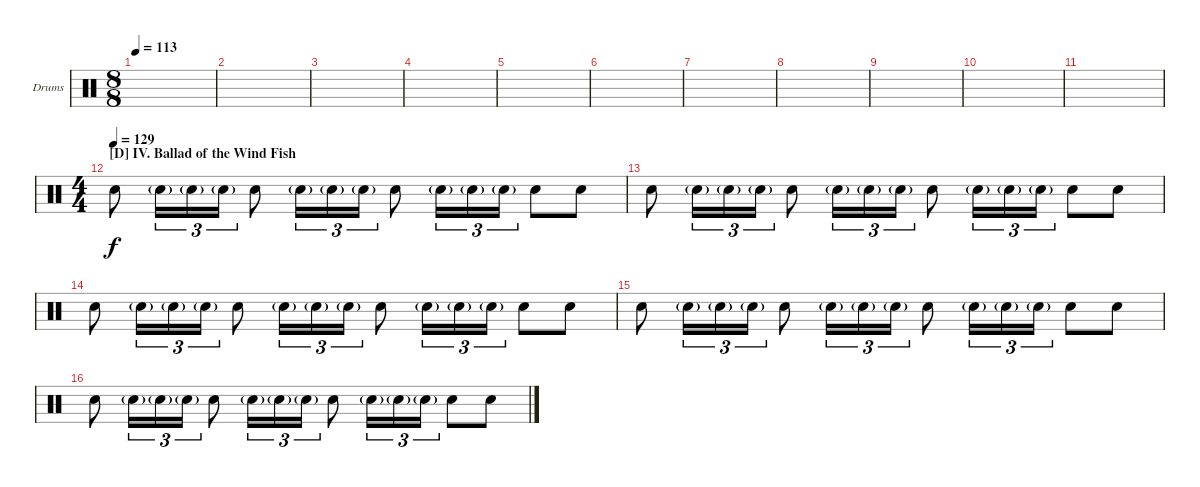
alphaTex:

\defaultSystemsLayout 4
\bracketExtendMode groupsimilarinstruments
\firstSystemTrackNameOrientation horizontal
\otherSystemsTrackNameOrientation horizontal
\track ("Drumkit" "Drums") {instrument percussion}
\staff {score}
\articulation defaults
\ts (8 8)
\tempo 113
\clef neutral
\scale
0.333333
\ks c
|
\scale
0.333333 |
\scale
0.333333 |
\scale
0.333333 |
\scale
0.333333 |
\scale
0.333333 |
\scale
0.333333 |
\scale
0.333333 |
\scale
0.333333 |
|
\scale
0.333333 |
\ts (4 4)
\section ("D" "IV. Ballad of the Wind Fish")
\tempo (129)
"Snare (hit) 2".8 "Snare (hit) 2"{g}.16{tu (3 2)} "Snare (hit) 2"{g}.16{tu (3 2)} "Snare (hit) 2"{g}.16{tu (3 2)} "Snare (hit) 2".8 "Snare (hit) 2"{g}.16{tu (3 2)} "Snare (hit) 2"{g}.16{tu (3 2)} "Snare (hit) 2"{g}.16{tu (3 2)} "Snare (hit) 2".8 "Snare (hit) 2"{g}.16{tu (3 2)} "Snare (hit) 2"{g}.16{tu (3 2)} "Snare (hit) 2"{g}.16{tu (3 2)} "Snare (hit) 2".8 "Snare (hit) 2".8 |
"Snare (hit) 2".8 "Snare (hit) 2"{g}.16{tu (3 2)} "Snare (hit) 2"{g}.16{tu (3 2)} "Snare (hit) 2"{g}.16{tu (3 2)} "Snare (hit) 2".8 "Snare (hit) 2"{g}.16{tu (3 2)} "Snare (hit) 2"{g}.16{tu (3 2)} "Snare (hit) 2"{g}.16{tu (3 2)} "Snare (hit) 2".8 "Snare (hit) 2"{g}.16{tu (3 2)} "Snare (hit) 2"{g}.16{tu (3 2)} "Snare (hit) 2"{g}.16{tu (3 2)} "Snare (hit) 2".8 "Snare (hit) 2".8 |
"Snare (hit) 2".8 "Snare (hit) 2"{g}.16{tu (3 2)} "Snare (hit) 2"{g}.16{tu (3 2)} "Snare (hit) 2"{g}.16{tu (3 2)} "Snare (hit) 2".8 "Snare (hit) 2"{g}.16{tu (3 2)} "Snare (hit) 2"{g}.16{tu (3 2)} "Snare (hit) 2"{g}.16{tu (3 2)} "Snare (hit) 2".8 "Snare (hit) 2"{g}.16{tu (3 2)} "Snare (hit) 2"{g}.16{tu (3 2)} "Snare (hit) 2"{g}.16{tu (3 2)} "Snare (hit) 2".8 "Snare (hit) 2".8 |
"Snare (hit) 2".8 "Snare (hit) 2"{g}.16{tu (3 2)} "Snare (hit) 2"{g}.16{tu (3 2)} "Snare (hit) 2"{g}.16{tu (3 2)} "Snare (hit) 2".8 "Snare (hit) 2"{g}.16{tu (3 2)} "Snare (hit) 2"{g}.16{tu (3 2)} "Snare (hit) 2"{g}.16{tu (3 2)} "Snare (hit) 2".8 "Snare (hit) 2"{g}.16{tu (3 2)} "Snare (hit) 2"{g}.16{tu (3 2)} "Snare (hit) 2"{g}.16{tu (3 2)} "Snare (hit) 2".8 "Snare (hit) 2".8 |
"Snare (hit) 2".8 "Snare (hit) 2"{g}.16{tu (3 2)} "Snare (hit) 2"{g}.16{tu (3 2)} "Snare (hit) 2"{g}.16{tu (3 2)} "Snare (hit) 2".8 "Snare (hit) 2"{g}.16{tu (3 2)} "Snare (hit) 2"{g}.16{tu (3 2)} "Snare (hit) 2"{g}.16{tu (3 2)} "Snare (hit) 2".8 "Snare (hit) 2"{g}.16{tu (3 2)} "Snare (hit) 2"{g}.16{tu (3 2)} "Snare (hit) 2"{g}.16{tu (3 2)} "Snare (hit) 2".8 "Snare (hit) 2".8
